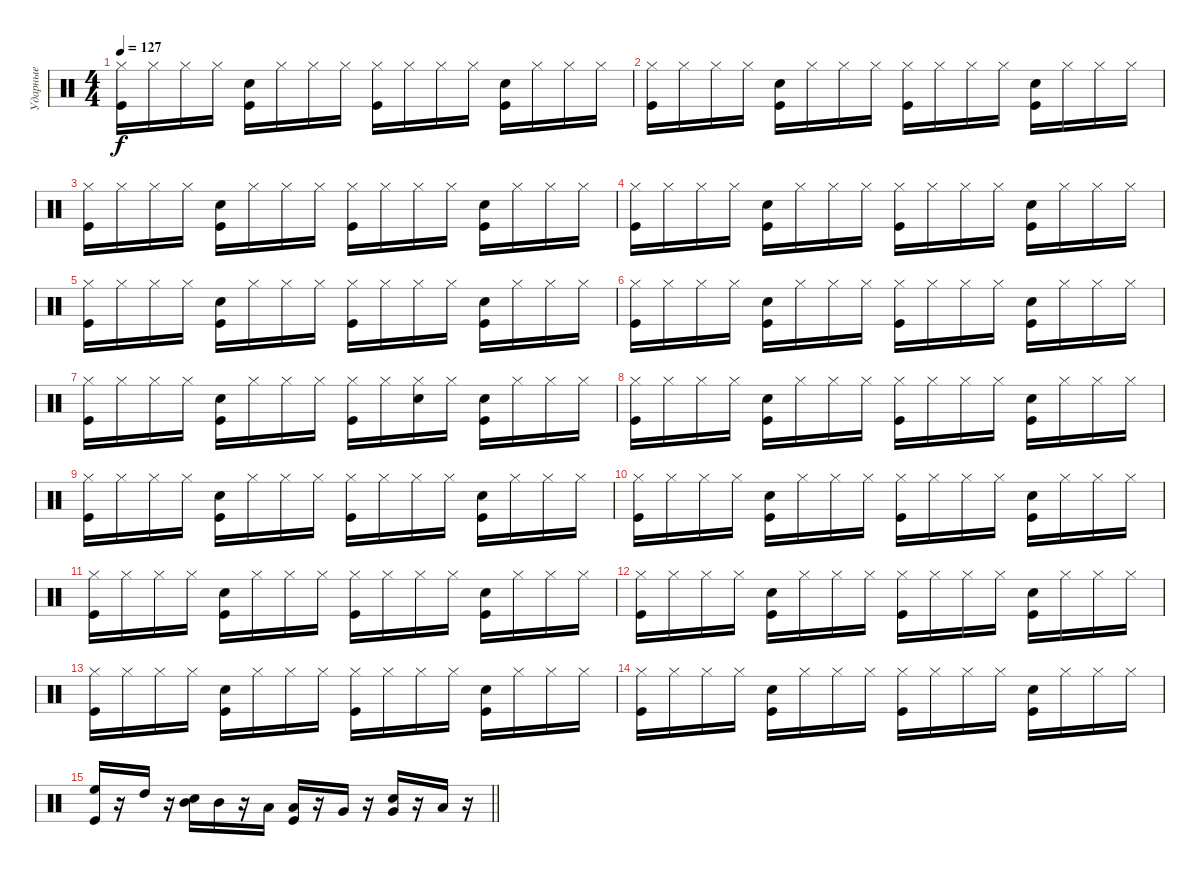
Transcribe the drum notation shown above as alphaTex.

\track ("Ударные" "Ударные") {solo instrument percussion}
\staff {score}
\articulation defaults
\ts (4 4)
\tempo 127
\clef neutral
\ks c
("Hi-Hat (closed)" "Kick (hit)").16{dy f} "Hi-Hat (closed)".16 "Hi-Hat (closed)".16 "Hi-Hat (closed)".16 ("Kick (hit)" "Snare (hit) 2").16 "Hi-Hat (closed)".16 "Hi-Hat (closed)".16 "Hi-Hat (closed)".16 ("Hi-Hat (closed)" "Kick (hit)").16 "Hi-Hat (closed)".16 "Hi-Hat (closed)".16 "Hi-Hat (closed)".16 ("Kick (hit)" "Snare (hit) 2").16 "Hi-Hat (closed)".16 "Hi-Hat (closed)".16 "Hi-Hat (closed)".16 |
("Hi-Hat (closed)" "Kick (hit)").16 "Hi-Hat (closed)".16 "Hi-Hat (closed)".16 "Hi-Hat (closed)".16 ("Kick (hit)" "Snare (hit) 2").16 "Hi-Hat (closed)".16 "Hi-Hat (closed)".16 "Hi-Hat (closed)".16 ("Hi-Hat (closed)" "Kick (hit)").16 "Hi-Hat (closed)".16 "Hi-Hat (closed)".16 "Hi-Hat (closed)".16 ("Kick (hit)" "Snare (hit) 2").16 "Hi-Hat (closed)".16 "Hi-Hat (closed)".16 "Hi-Hat (closed)".16 |
("Hi-Hat (closed)" "Kick (hit)").16 "Hi-Hat (closed)".16 "Hi-Hat (closed)".16 "Hi-Hat (closed)".16 ("Kick (hit)" "Snare (hit) 2").16 "Hi-Hat (closed)".16 "Hi-Hat (closed)".16 "Hi-Hat (closed)".16 ("Hi-Hat (closed)" "Kick (hit)").16 "Hi-Hat (closed)".16 "Hi-Hat (closed)".16 "Hi-Hat (closed)".16 ("Kick (hit)" "Snare (hit) 2").16 "Hi-Hat (closed)".16 "Hi-Hat (closed)".16 "Hi-Hat (closed)".16 |
("Hi-Hat (closed)" "Kick (hit)").16 "Hi-Hat (closed)".16 "Hi-Hat (closed)".16 "Hi-Hat (closed)".16 ("Kick (hit)" "Snare (hit) 2").16 "Hi-Hat (closed)".16 "Hi-Hat (closed)".16 "Hi-Hat (closed)".16 ("Hi-Hat (closed)" "Kick (hit)").16 "Hi-Hat (closed)".16 "Hi-Hat (closed)".16 "Hi-Hat (closed)".16 ("Kick (hit)" "Snare (hit) 2").16 "Hi-Hat (closed)".16 "Hi-Hat (closed)".16 "Hi-Hat (closed)".16 |
("Hi-Hat (closed)" "Kick (hit)").16 "Hi-Hat (closed)".16 "Hi-Hat (closed)".16 "Hi-Hat (closed)".16 ("Kick (hit)" "Snare (hit) 2").16 "Hi-Hat (closed)".16 "Hi-Hat (closed)".16 "Hi-Hat (closed)".16 ("Hi-Hat (closed)" "Kick (hit)").16 "Hi-Hat (closed)".16 "Hi-Hat (closed)".16 "Hi-Hat (closed)".16 ("Kick (hit)" "Snare (hit) 2").16 "Hi-Hat (closed)".16 "Hi-Hat (closed)".16 "Hi-Hat (closed)".16 |
("Hi-Hat (closed)" "Kick (hit)").16 "Hi-Hat (closed)".16 "Hi-Hat (closed)".16 "Hi-Hat (closed)".16 ("Kick (hit)" "Snare (hit) 2").16 "Hi-Hat (closed)".16 "Hi-Hat (closed)".16 "Hi-Hat (closed)".16 ("Hi-Hat (closed)" "Kick (hit)").16 "Hi-Hat (closed)".16 "Hi-Hat (closed)".16 "Hi-Hat (closed)".16 ("Kick (hit)" "Snare (hit) 2").16 "Hi-Hat (closed)".16 "Hi-Hat (closed)".16 "Hi-Hat (closed)".16 |
("Hi-Hat (closed)" "Kick (hit)").16 "Hi-Hat (closed)".16 "Hi-Hat (closed)".16 "Hi-Hat (closed)".16 ("Kick (hit)" "Snare (hit) 2").16 "Hi-Hat (closed)".16 "Hi-Hat (closed)".16 "Hi-Hat (closed)".16 ("Hi-Hat (closed)" "Kick (hit)").16 "Hi-Hat (closed)".16 ("Hi-Hat (closed)" "Snare (hit) 2").16 "Hi-Hat (closed)".16 ("Kick (hit)" "Snare (hit) 2").16 "Hi-Hat (closed)".16 "Hi-Hat (closed)".16 "Hi-Hat (closed)".16 |
("Hi-Hat (closed)" "Kick (hit)").16 "Hi-Hat (closed)".16 "Hi-Hat (closed)".16 "Hi-Hat (closed)".16 ("Kick (hit)" "Snare (hit) 2").16 "Hi-Hat (closed)".16 "Hi-Hat (closed)".16 "Hi-Hat (closed)".16 ("Hi-Hat (closed)" "Kick (hit)").16 "Hi-Hat (closed)".16 "Hi-Hat (closed)".16 "Hi-Hat (closed)".16 ("Kick (hit)" "Snare (hit) 2").16 "Hi-Hat (closed)".16 "Hi-Hat (closed)".16 "Hi-Hat (closed)".16 |
("Hi-Hat (closed)" "Kick (hit)").16 "Hi-Hat (closed)".16 "Hi-Hat (closed)".16 "Hi-Hat (closed)".16 ("Kick (hit)" "Snare (hit) 2").16 "Hi-Hat (closed)".16 "Hi-Hat (closed)".16 "Hi-Hat (closed)".16 ("Hi-Hat (closed)" "Kick (hit)").16 "Hi-Hat (closed)".16 "Hi-Hat (closed)".16 "Hi-Hat (closed)".16 ("Kick (hit)" "Snare (hit) 2").16 "Hi-Hat (closed)".16 "Hi-Hat (closed)".16 "Hi-Hat (closed)".16 |
("Hi-Hat (closed)" "Kick (hit)").16 "Hi-Hat (closed)".16 "Hi-Hat (closed)".16 "Hi-Hat (closed)".16 ("Kick (hit)" "Snare (hit) 2").16 "Hi-Hat (closed)".16 "Hi-Hat (closed)".16 "Hi-Hat (closed)".16 ("Hi-Hat (closed)" "Kick (hit)").16 "Hi-Hat (closed)".16 "Hi-Hat (closed)".16 "Hi-Hat (closed)".16 ("Kick (hit)" "Snare (hit) 2").16 "Hi-Hat (closed)".16 "Hi-Hat (closed)".16 "Hi-Hat (closed)".16 |
("Hi-Hat (closed)" "Kick (hit)").16 "Hi-Hat (closed)".16 "Hi-Hat (closed)".16 "Hi-Hat (closed)".16 ("Kick (hit)" "Snare (hit) 2").16 "Hi-Hat (closed)".16 "Hi-Hat (closed)".16 "Hi-Hat (closed)".16 ("Hi-Hat (closed)" "Kick (hit)").16 "Hi-Hat (closed)".16 "Hi-Hat (closed)".16 "Hi-Hat (closed)".16 ("Kick (hit)" "Snare (hit) 2").16 "Hi-Hat (closed)".16 "Hi-Hat (closed)".16 "Hi-Hat (closed)".16 |
("Hi-Hat (closed)" "Kick (hit)").16 "Hi-Hat (closed)".16 "Hi-Hat (closed)".16 "Hi-Hat (closed)".16 ("Kick (hit)" "Snare (hit) 2").16 "Hi-Hat (closed)".16 "Hi-Hat (closed)".16 "Hi-Hat (closed)".16 ("Hi-Hat (closed)" "Kick (hit)").16 "Hi-Hat (closed)".16 "Hi-Hat (closed)".16 "Hi-Hat (closed)".16 ("Kick (hit)" "Snare (hit) 2").16 "Hi-Hat (closed)".16 "Hi-Hat (closed)".16 "Hi-Hat (closed)".16 |
("Hi-Hat (closed)" "Kick (hit)").16 "Hi-Hat (closed)".16 "Hi-Hat (closed)".16 "Hi-Hat (closed)".16 ("Kick (hit)" "Snare (hit) 2").16 "Hi-Hat (closed)".16 "Hi-Hat (closed)".16 "Hi-Hat (closed)".16 ("Hi-Hat (closed)" "Kick (hit)").16 "Hi-Hat (closed)".16 "Hi-Hat (closed)".16 "Hi-Hat (closed)".16 ("Kick (hit)" "Snare (hit) 2").16 "Hi-Hat (closed)".16 "Hi-Hat (closed)".16 "Hi-Hat (closed)".16 |
("Hi-Hat (closed)" "Kick (hit)").16 "Hi-Hat (closed)".16 "Hi-Hat (closed)".16 "Hi-Hat (closed)".16 ("Kick (hit)" "Snare (hit) 2").16 "Hi-Hat (closed)".16 "Hi-Hat (closed)".16 "Hi-Hat (closed)".16 ("Hi-Hat (closed)" "Kick (hit)").16 "Hi-Hat (closed)".16 "Hi-Hat (closed)".16 "Hi-Hat (closed)".16 ("Kick (hit)" "Snare (hit) 2").16 "Hi-Hat (closed)".16 "Hi-Hat (closed)".16 "Hi-Hat (closed)".16 |
\barLineRight lightlight
("Kick (hit)" "High Floor Tom (hit)").16 r.16 "High Tom (hit)".16 r.16 ("Snare (hit) 2" "Mid Tom (hit)").16 "Mid Tom (hit)".16 r.16 "Low Tom (hit)".16 ("Kick (hit)" "Low Tom (hit)").16 r.16 "Very Low Tom (hit)".16 r.16 ("Very Low Tom (hit)" "Snare (hit) 2").16 r.16 "Low Floor Tom (hit)".16 r.16
